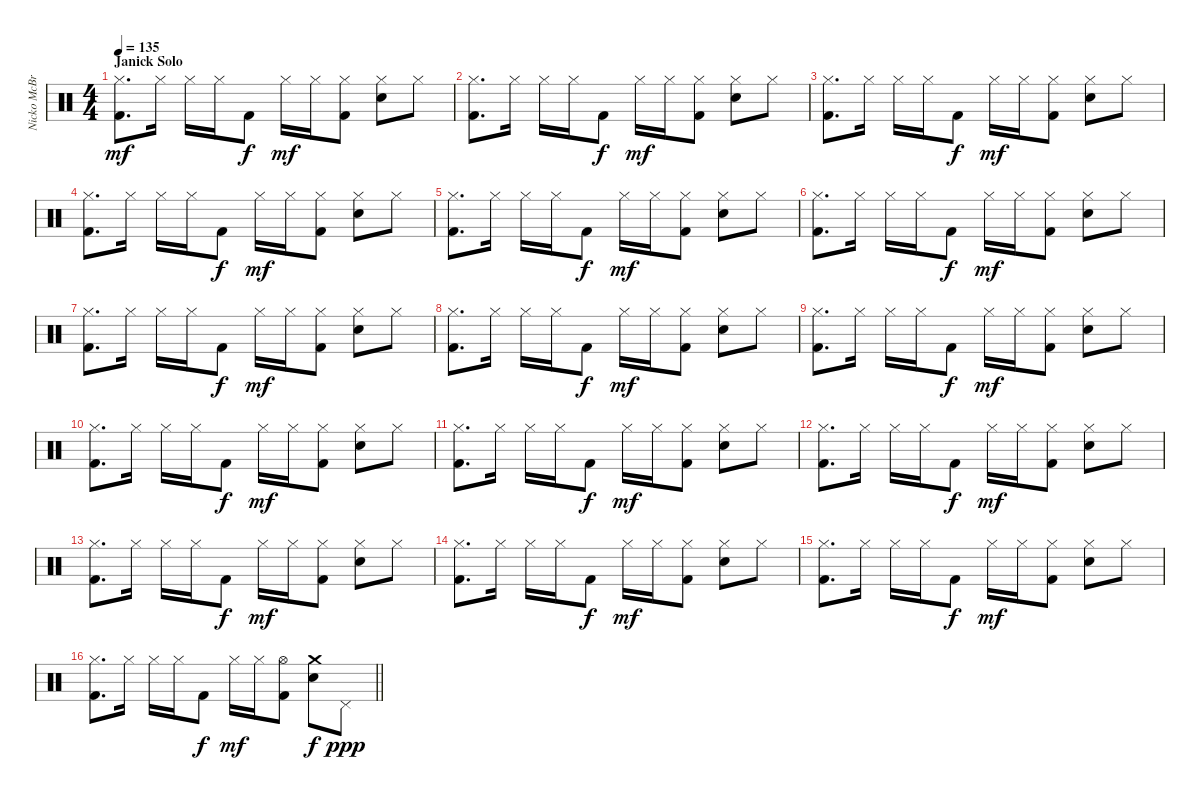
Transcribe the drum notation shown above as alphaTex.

\track ("Nicko McBrain" "Nicko McBr") {instrument percussion}
\staff {score}
\articulation defaults
\ts (4 4)
\section ("" "Janick Solo")
\tempo 135
\clef neutral
\ks c
("Hi-Hat (closed)" "Kick (hit) 2").8{d dy mf} "Hi-Hat (closed)".16 "Hi-Hat (closed)".16 "Hi-Hat (closed)".16 "Kick (hit) 2".8{dy f} "Hi-Hat (closed)".16{dy mf} "Hi-Hat (closed)".16 ("Hi-Hat (closed)" "Kick (hit) 2").8 ("Hi-Hat (closed)" "Electric Snare (hit)").8 "Hi-Hat (closed)".8 |
("Hi-Hat (closed)" "Kick (hit) 2").8{d} "Hi-Hat (closed)".16 "Hi-Hat (closed)".16 "Hi-Hat (closed)".16 "Kick (hit) 2".8{dy f} "Hi-Hat (closed)".16{dy mf} "Hi-Hat (closed)".16 ("Hi-Hat (closed)" "Kick (hit) 2").8 ("Hi-Hat (closed)" "Electric Snare (hit)").8 "Hi-Hat (closed)".8 |
("Hi-Hat (closed)" "Kick (hit) 2").8{d} "Hi-Hat (closed)".16 "Hi-Hat (closed)".16 "Hi-Hat (closed)".16 "Kick (hit) 2".8{dy f} "Hi-Hat (closed)".16{dy mf} "Hi-Hat (closed)".16 ("Hi-Hat (closed)" "Kick (hit) 2").8 ("Hi-Hat (closed)" "Electric Snare (hit)").8 "Hi-Hat (closed)".8 |
("Hi-Hat (closed)" "Kick (hit) 2").8{d} "Hi-Hat (closed)".16 "Hi-Hat (closed)".16 "Hi-Hat (closed)".16 "Kick (hit) 2".8{dy f} "Hi-Hat (closed)".16{dy mf} "Hi-Hat (closed)".16 ("Hi-Hat (closed)" "Kick (hit) 2").8 ("Hi-Hat (closed)" "Electric Snare (hit)").8 "Hi-Hat (closed)".8 |
("Hi-Hat (closed)" "Kick (hit) 2").8{d} "Hi-Hat (closed)".16 "Hi-Hat (closed)".16 "Hi-Hat (closed)".16 "Kick (hit) 2".8{dy f} "Hi-Hat (closed)".16{dy mf} "Hi-Hat (closed)".16 ("Hi-Hat (closed)" "Kick (hit) 2").8 ("Hi-Hat (closed)" "Electric Snare (hit)").8 "Hi-Hat (closed)".8 |
("Hi-Hat (closed)" "Kick (hit) 2").8{d} "Hi-Hat (closed)".16 "Hi-Hat (closed)".16 "Hi-Hat (closed)".16 "Kick (hit) 2".8{dy f} "Hi-Hat (closed)".16{dy mf} "Hi-Hat (closed)".16 ("Hi-Hat (closed)" "Kick (hit) 2").8 ("Hi-Hat (closed)" "Electric Snare (hit)").8 "Hi-Hat (closed)".8 |
("Hi-Hat (closed)" "Kick (hit) 2").8{d} "Hi-Hat (closed)".16 "Hi-Hat (closed)".16 "Hi-Hat (closed)".16 "Kick (hit) 2".8{dy f} "Hi-Hat (closed)".16{dy mf} "Hi-Hat (closed)".16 ("Hi-Hat (closed)" "Kick (hit) 2").8 ("Hi-Hat (closed)" "Electric Snare (hit)").8 "Hi-Hat (closed)".8 |
("Hi-Hat (closed)" "Kick (hit) 2").8{d} "Hi-Hat (closed)".16 "Hi-Hat (closed)".16 "Hi-Hat (closed)".16 "Kick (hit) 2".8{dy f} "Hi-Hat (closed)".16{dy mf} "Hi-Hat (closed)".16 ("Hi-Hat (closed)" "Kick (hit) 2").8 ("Hi-Hat (closed)" "Electric Snare (hit)").8 "Hi-Hat (closed)".8 |
("Hi-Hat (closed)" "Kick (hit) 2").8{d} "Hi-Hat (closed)".16 "Hi-Hat (closed)".16 "Hi-Hat (closed)".16 "Kick (hit) 2".8{dy f} "Hi-Hat (closed)".16{dy mf} "Hi-Hat (closed)".16 ("Hi-Hat (closed)" "Kick (hit) 2").8 ("Hi-Hat (closed)" "Electric Snare (hit)").8 "Hi-Hat (closed)".8 |
("Hi-Hat (closed)" "Kick (hit) 2").8{d} "Hi-Hat (closed)".16 "Hi-Hat (closed)".16 "Hi-Hat (closed)".16 "Kick (hit) 2".8{dy f} "Hi-Hat (closed)".16{dy mf} "Hi-Hat (closed)".16 ("Hi-Hat (closed)" "Kick (hit) 2").8 ("Hi-Hat (closed)" "Electric Snare (hit)").8 "Hi-Hat (closed)".8 |
("Hi-Hat (closed)" "Kick (hit) 2").8{d} "Hi-Hat (closed)".16 "Hi-Hat (closed)".16 "Hi-Hat (closed)".16 "Kick (hit) 2".8{dy f} "Hi-Hat (closed)".16{dy mf} "Hi-Hat (closed)".16 ("Hi-Hat (closed)" "Kick (hit) 2").8 ("Hi-Hat (closed)" "Electric Snare (hit)").8 "Hi-Hat (closed)".8 |
("Hi-Hat (closed)" "Kick (hit) 2").8{d} "Hi-Hat (closed)".16 "Hi-Hat (closed)".16 "Hi-Hat (closed)".16 "Kick (hit) 2".8{dy f} "Hi-Hat (closed)".16{dy mf} "Hi-Hat (closed)".16 ("Hi-Hat (closed)" "Kick (hit) 2").8 ("Hi-Hat (closed)" "Electric Snare (hit)").8 "Hi-Hat (closed)".8 |
("Hi-Hat (closed)" "Kick (hit) 2").8{d} "Hi-Hat (closed)".16 "Hi-Hat (closed)".16 "Hi-Hat (closed)".16 "Kick (hit) 2".8{dy f} "Hi-Hat (closed)".16{dy mf} "Hi-Hat (closed)".16 ("Hi-Hat (closed)" "Kick (hit) 2").8 ("Hi-Hat (closed)" "Electric Snare (hit)").8 "Hi-Hat (closed)".8 |
("Hi-Hat (closed)" "Kick (hit) 2").8{d} "Hi-Hat (closed)".16 "Hi-Hat (closed)".16 "Hi-Hat (closed)".16 "Kick (hit) 2".8{dy f} "Hi-Hat (closed)".16{dy mf} "Hi-Hat (closed)".16 ("Hi-Hat (closed)" "Kick (hit) 2").8 ("Hi-Hat (closed)" "Electric Snare (hit)").8 "Hi-Hat (closed)".8 |
("Hi-Hat (closed)" "Kick (hit) 2").8{d} "Hi-Hat (closed)".16 "Hi-Hat (closed)".16 "Hi-Hat (closed)".16 "Kick (hit) 2".8{dy f} "Hi-Hat (closed)".16{dy mf} "Hi-Hat (closed)".16 ("Hi-Hat (closed)" "Kick (hit) 2").8 ("Hi-Hat (closed)" "Electric Snare (hit)").8 "Hi-Hat (closed)".8 |
\barLineRight lightlight
("Hi-Hat (closed)" "Kick (hit) 2").8{d} "Hi-Hat (closed)".16 "Hi-Hat (closed)".16 "Hi-Hat (closed)".16 "Kick (hit) 2".8{dy f} "Hi-Hat (closed)".16{dy mf} "Hi-Hat (closed)".16 ("Hi-Hat (open)" "Kick (hit) 2").8 ("Crash medium (hit)" "Electric Snare (hit)").8{dy f} "Pedal Hi-Hat (hit)".8{dy ppp}
